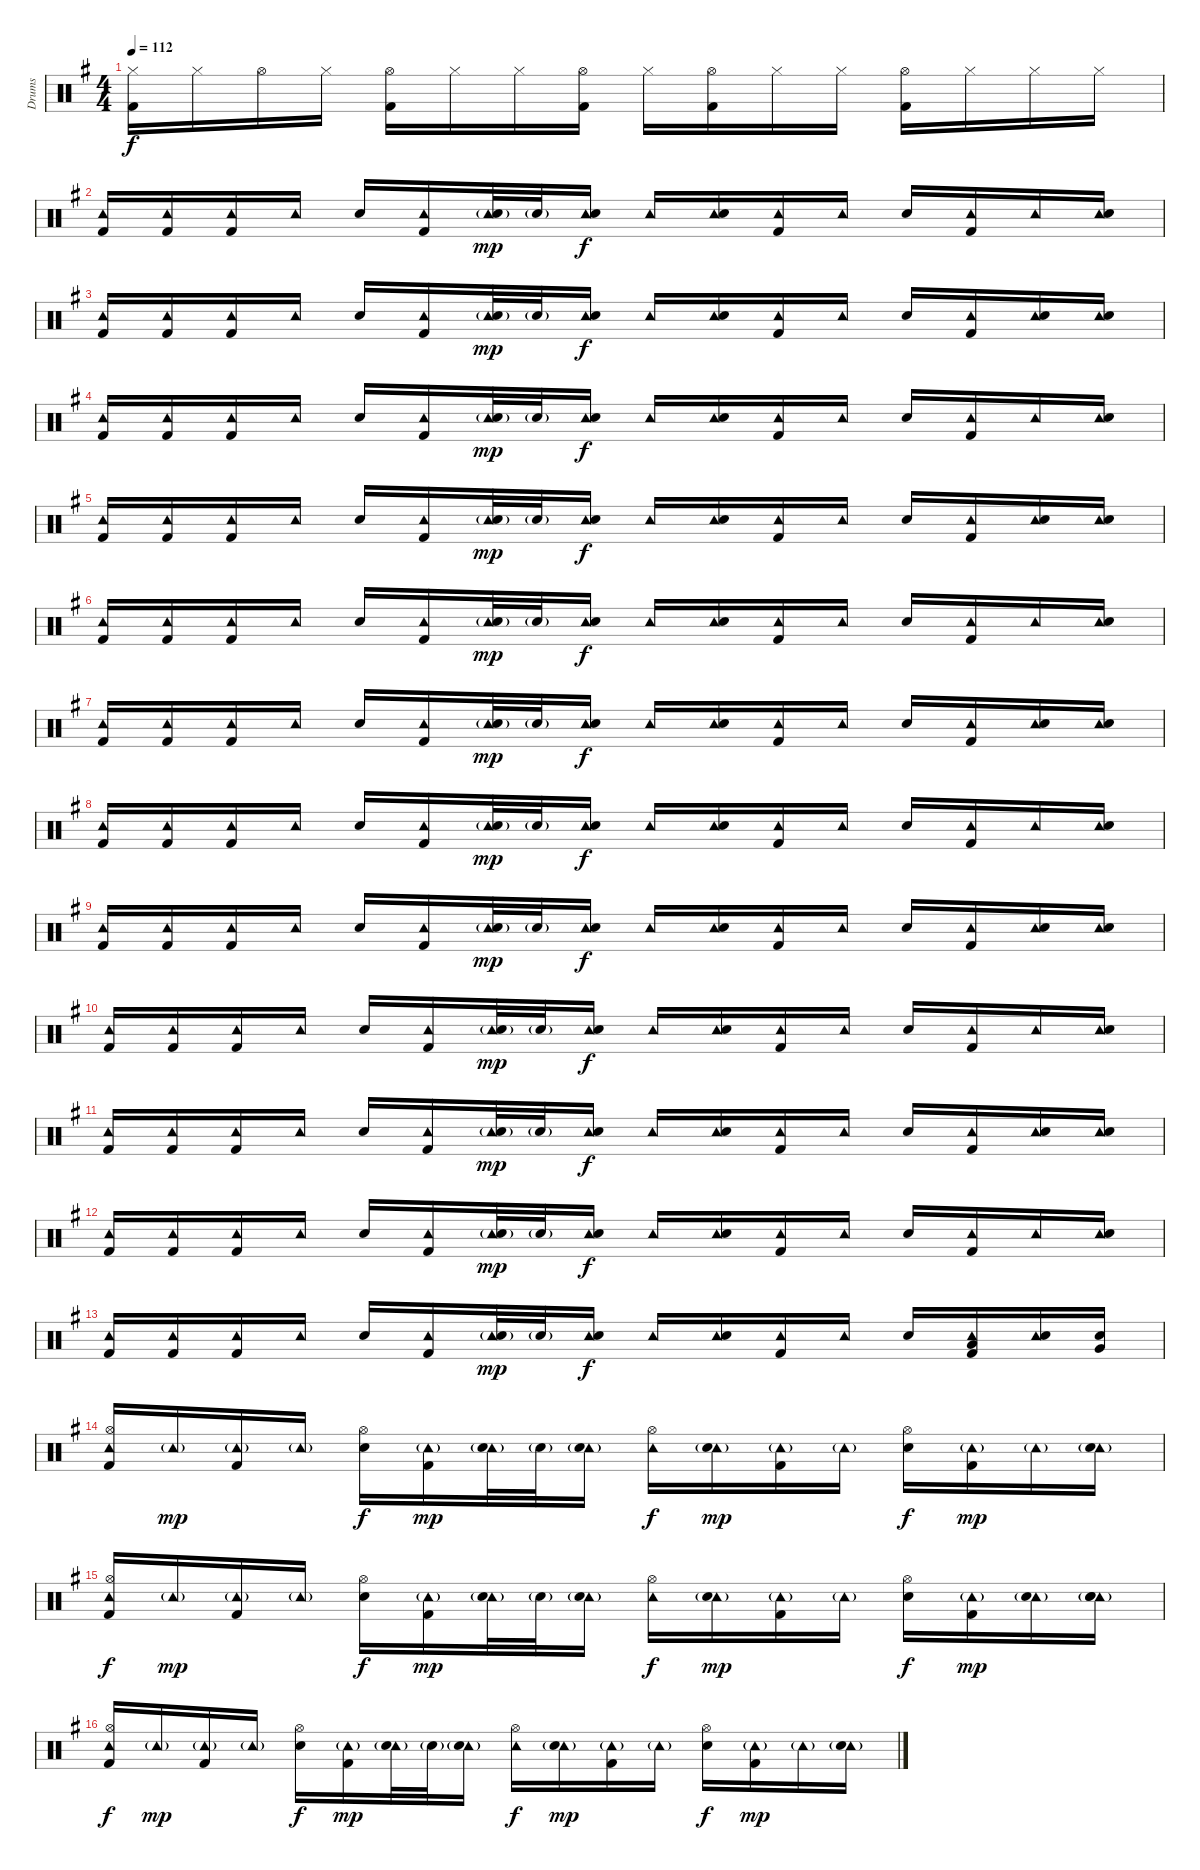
\track ("Drums" "Drums") {instrument percussion}
\staff {score}
\articulation defaults
\ts (4 4)
\tempo 112
\clef neutral
\ks g
("Hi-Hat (closed)" "Kick (hit) 2").16{dy f} "Hi-Hat (closed)".16 "Hi-Hat (open)".16 "Hi-Hat (closed)".16 ("Hi-Hat (open)" "Kick (hit) 2").16 "Hi-Hat (closed)".16 "Hi-Hat (closed)".16 ("Hi-Hat (open)" "Kick (hit) 2").16 "Hi-Hat (closed)".16 ("Hi-Hat (open)" "Kick (hit) 2").16 "Hi-Hat (closed)".16 "Hi-Hat (closed)".16 ("Hi-Hat (open)" "Kick (hit) 2").16 "Hi-Hat (closed)".16 "Hi-Hat (closed)".16 "Hi-Hat (closed)".16 |
("Tambourine (hit)" "Kick (hit) 2").16 ("Tambourine (hit)" "Kick (hit) 2").16 ("Tambourine (hit)" "Kick (hit) 2").16 "Tambourine (hit)".16 "Snare (hit) 2".16 ("Tambourine (hit)" "Kick (hit) 2").16 ("Tambourine (hit)" "Electric Snare (hit)"{g}).32{dy mp} "Electric Snare (hit)"{g}.32 ("Tambourine (hit)" "Electric Snare (hit)").16{dy f} "Tambourine (hit)".16 ("Tambourine (hit)" "Electric Snare (hit)").16 ("Tambourine (hit)" "Kick (hit) 2").16 "Tambourine (hit)".16 "Snare (hit) 2".16 ("Tambourine (hit)" "Kick (hit) 2").16 "Tambourine (hit)".16 ("Tambourine (hit)" "Electric Snare (hit)").16 |
("Tambourine (hit)" "Kick (hit) 2").16 ("Tambourine (hit)" "Kick (hit) 2").16 ("Tambourine (hit)" "Kick (hit) 2").16 "Tambourine (hit)".16 "Snare (hit) 2".16 ("Tambourine (hit)" "Kick (hit) 2").16 ("Tambourine (hit)" "Electric Snare (hit)"{g}).32{dy mp} "Electric Snare (hit)"{g}.32 ("Tambourine (hit)" "Electric Snare (hit)").16{dy f} "Tambourine (hit)".16 ("Tambourine (hit)" "Electric Snare (hit)").16 ("Tambourine (hit)" "Kick (hit) 2").16 "Tambourine (hit)".16 "Snare (hit) 2".16 ("Tambourine (hit)" "Kick (hit) 2").16 ("Tambourine (hit)" "Electric Snare (hit)").16 ("Tambourine (hit)" "Hand Clap (hit)").16 |
("Tambourine (hit)" "Kick (hit) 2").16 ("Tambourine (hit)" "Kick (hit) 2").16 ("Tambourine (hit)" "Kick (hit) 2").16 "Tambourine (hit)".16 "Snare (hit) 2".16 ("Tambourine (hit)" "Kick (hit) 2").16 ("Tambourine (hit)" "Electric Snare (hit)"{g}).32{dy mp} "Electric Snare (hit)"{g}.32 ("Tambourine (hit)" "Electric Snare (hit)").16{dy f} "Tambourine (hit)".16 ("Tambourine (hit)" "Electric Snare (hit)").16 ("Tambourine (hit)" "Kick (hit) 2").16 "Tambourine (hit)".16 "Snare (hit) 2".16 ("Tambourine (hit)" "Kick (hit) 2").16 "Tambourine (hit)".16 ("Tambourine (hit)" "Electric Snare (hit)").16 |
("Tambourine (hit)" "Kick (hit) 2").16 ("Tambourine (hit)" "Kick (hit) 2").16 ("Tambourine (hit)" "Kick (hit) 2").16 "Tambourine (hit)".16 "Snare (hit) 2".16 ("Tambourine (hit)" "Kick (hit) 2").16 ("Tambourine (hit)" "Electric Snare (hit)"{g}).32{dy mp} "Electric Snare (hit)"{g}.32 ("Tambourine (hit)" "Electric Snare (hit)").16{dy f} "Tambourine (hit)".16 ("Tambourine (hit)" "Electric Snare (hit)").16 ("Tambourine (hit)" "Kick (hit) 2").16 "Tambourine (hit)".16 "Snare (hit) 2".16 ("Tambourine (hit)" "Kick (hit) 2").16 ("Tambourine (hit)" "Electric Snare (hit)").16 ("Tambourine (hit)" "Hand Clap (hit)").16 |
("Tambourine (hit)" "Kick (hit) 2").16 ("Tambourine (hit)" "Kick (hit) 2").16 ("Tambourine (hit)" "Kick (hit) 2").16 "Tambourine (hit)".16 "Snare (hit) 2".16 ("Tambourine (hit)" "Kick (hit) 2").16 ("Tambourine (hit)" "Electric Snare (hit)"{g}).32{dy mp} "Electric Snare (hit)"{g}.32 ("Tambourine (hit)" "Electric Snare (hit)").16{dy f} "Tambourine (hit)".16 ("Tambourine (hit)" "Electric Snare (hit)").16 ("Tambourine (hit)" "Kick (hit) 2").16 "Tambourine (hit)".16 "Snare (hit) 2".16 ("Tambourine (hit)" "Kick (hit) 2").16 "Tambourine (hit)".16 ("Tambourine (hit)" "Electric Snare (hit)").16 |
("Tambourine (hit)" "Kick (hit) 2").16 ("Tambourine (hit)" "Kick (hit) 2").16 ("Tambourine (hit)" "Kick (hit) 2").16 "Tambourine (hit)".16 "Snare (hit) 2".16 ("Tambourine (hit)" "Kick (hit) 2").16 ("Tambourine (hit)" "Electric Snare (hit)"{g}).32{dy mp} "Electric Snare (hit)"{g}.32 ("Tambourine (hit)" "Electric Snare (hit)").16{dy f} "Tambourine (hit)".16 ("Tambourine (hit)" "Electric Snare (hit)").16 ("Tambourine (hit)" "Kick (hit) 2").16 "Tambourine (hit)".16 "Snare (hit) 2".16 ("Tambourine (hit)" "Kick (hit) 2").16 ("Tambourine (hit)" "Electric Snare (hit)").16 ("Tambourine (hit)" "Hand Clap (hit)").16 |
("Tambourine (hit)" "Kick (hit) 2").16 ("Tambourine (hit)" "Kick (hit) 2").16 ("Tambourine (hit)" "Kick (hit) 2").16 "Tambourine (hit)".16 "Snare (hit) 2".16 ("Tambourine (hit)" "Kick (hit) 2").16 ("Tambourine (hit)" "Electric Snare (hit)"{g}).32{dy mp} "Electric Snare (hit)"{g}.32 ("Tambourine (hit)" "Electric Snare (hit)").16{dy f} "Tambourine (hit)".16 ("Tambourine (hit)" "Electric Snare (hit)").16 ("Tambourine (hit)" "Kick (hit) 2").16 "Tambourine (hit)".16 "Snare (hit) 2".16 ("Tambourine (hit)" "Kick (hit) 2").16 "Tambourine (hit)".16 ("Tambourine (hit)" "Electric Snare (hit)").16 |
("Tambourine (hit)" "Kick (hit) 2").16 ("Tambourine (hit)" "Kick (hit) 2").16 ("Tambourine (hit)" "Kick (hit) 2").16 "Tambourine (hit)".16 "Snare (hit) 2".16 ("Tambourine (hit)" "Kick (hit) 2").16 ("Tambourine (hit)" "Electric Snare (hit)"{g}).32{dy mp} "Electric Snare (hit)"{g}.32 ("Tambourine (hit)" "Electric Snare (hit)").16{dy f} "Tambourine (hit)".16 ("Tambourine (hit)" "Electric Snare (hit)").16 ("Tambourine (hit)" "Kick (hit) 2").16 "Tambourine (hit)".16 "Snare (hit) 2".16 ("Tambourine (hit)" "Kick (hit) 2").16 ("Tambourine (hit)" "Electric Snare (hit)").16 ("Tambourine (hit)" "Hand Clap (hit)").16 |
("Tambourine (hit)" "Kick (hit) 2").16 ("Tambourine (hit)" "Kick (hit) 2").16 ("Tambourine (hit)" "Kick (hit) 2").16 "Tambourine (hit)".16 "Snare (hit) 2".16 ("Tambourine (hit)" "Kick (hit) 2").16 ("Tambourine (hit)" "Electric Snare (hit)"{g}).32{dy mp} "Electric Snare (hit)"{g}.32 ("Tambourine (hit)" "Electric Snare (hit)").16{dy f} "Tambourine (hit)".16 ("Tambourine (hit)" "Electric Snare (hit)").16 ("Tambourine (hit)" "Kick (hit) 2").16 "Tambourine (hit)".16 "Snare (hit) 2".16 ("Tambourine (hit)" "Kick (hit) 2").16 "Tambourine (hit)".16 ("Tambourine (hit)" "Electric Snare (hit)").16 |
("Tambourine (hit)" "Kick (hit) 2").16 ("Tambourine (hit)" "Kick (hit) 2").16 ("Tambourine (hit)" "Kick (hit) 2").16 "Tambourine (hit)".16 "Snare (hit) 2".16 ("Tambourine (hit)" "Kick (hit) 2").16 ("Tambourine (hit)" "Electric Snare (hit)"{g}).32{dy mp} "Electric Snare (hit)"{g}.32 ("Tambourine (hit)" "Electric Snare (hit)").16{dy f} "Tambourine (hit)".16 ("Tambourine (hit)" "Electric Snare (hit)").16 ("Tambourine (hit)" "Kick (hit) 2").16 "Tambourine (hit)".16 "Snare (hit) 2".16 ("Tambourine (hit)" "Kick (hit) 2").16 ("Tambourine (hit)" "Electric Snare (hit)").16 ("Tambourine (hit)" "Hand Clap (hit)").16 |
("Tambourine (hit)" "Kick (hit) 2").16 ("Tambourine (hit)" "Kick (hit) 2").16 ("Tambourine (hit)" "Kick (hit) 2").16 "Tambourine (hit)".16 "Snare (hit) 2".16 ("Tambourine (hit)" "Kick (hit) 2").16 ("Tambourine (hit)" "Electric Snare (hit)"{g}).32{dy mp} "Electric Snare (hit)"{g}.32 ("Tambourine (hit)" "Electric Snare (hit)").16{dy f} "Tambourine (hit)".16 ("Tambourine (hit)" "Electric Snare (hit)").16 ("Tambourine (hit)" "Kick (hit) 2").16 "Tambourine (hit)".16 "Snare (hit) 2".16 ("Tambourine (hit)" "Kick (hit) 2").16 "Tambourine (hit)".16 ("Tambourine (hit)" "Electric Snare (hit)").16 |
("Tambourine (hit)" "Kick (hit) 2").16 ("Tambourine (hit)" "Kick (hit) 2").16 ("Tambourine (hit)" "Kick (hit) 2").16 "Tambourine (hit)".16 "Snare (hit) 2".16 ("Tambourine (hit)" "Kick (hit) 2").16 ("Tambourine (hit)" "Electric Snare (hit)"{g}).32{dy mp} "Electric Snare (hit)"{g}.32 ("Tambourine (hit)" "Electric Snare (hit)").16{dy f} "Tambourine (hit)".16 ("Tambourine (hit)" "Electric Snare (hit)").16 ("Tambourine (hit)" "Kick (hit) 2").16 "Tambourine (hit)".16 "Snare (hit) 2".16 ("Tambourine (hit)" "Low Tom (hit)" "Kick (hit) 2").16 ("Tambourine (hit)" "Electric Snare (hit)").16 ("Very Low Tom (hit)" "Hand Clap (hit)").16 |
("Tambourine (hit)" "Hi-Hat (open)" "Kick (hit) 2").16 "Tambourine (hit)"{g}.16{dy mp} ("Tambourine (hit)"{g} "Kick (hit) 2").16 "Tambourine (hit)"{g}.16 ("Hi-Hat (open)" "Snare (hit) 2").16{dy f} ("Tambourine (hit)"{g} "Kick (hit) 2").16{dy mp} ("Tambourine (hit)"{g} "Electric Snare (hit)"{g}).32 "Electric Snare (hit)"{g}.32 ("Tambourine (hit)"{g} "Electric Snare (hit)").16 ("Tambourine (hit)" "Hi-Hat (open)").16{dy f} ("Tambourine (hit)"{g} "Electric Snare (hit)").16{dy mp} ("Tambourine (hit)"{g} "Kick (hit) 2").16 "Tambourine (hit)"{g}.16 ("Hi-Hat (open)" "Snare (hit) 2").16{dy f} ("Tambourine (hit)"{g} "Kick (hit) 2").16{dy mp} "Tambourine (hit)"{g}.16 ("Tambourine (hit)"{g} "Electric Snare (hit)").16 |
("Tambourine (hit)" "Hi-Hat (open)" "Kick (hit) 2").16{dy f} "Tambourine (hit)"{g}.16{dy mp} ("Tambourine (hit)"{g} "Kick (hit) 2").16 "Tambourine (hit)"{g}.16 ("Hi-Hat (open)" "Snare (hit) 2").16{dy f} ("Tambourine (hit)"{g} "Kick (hit) 2").16{dy mp} ("Tambourine (hit)"{g} "Electric Snare (hit)"{g}).32 "Electric Snare (hit)"{g}.32 ("Tambourine (hit)"{g} "Electric Snare (hit)").16 ("Tambourine (hit)" "Hi-Hat (open)").16{dy f} ("Tambourine (hit)"{g} "Electric Snare (hit)").16{dy mp} ("Tambourine (hit)"{g} "Kick (hit) 2").16 "Tambourine (hit)"{g}.16 ("Hi-Hat (open)" "Snare (hit) 2").16{dy f} ("Tambourine (hit)"{g} "Kick (hit) 2").16{dy mp} ("Tambourine (hit)"{g} "Electric Snare (hit)").16 ("Tambourine (hit)"{g} "Hand Clap (hit)" "Electric Snare (hit)").16 |
("Tambourine (hit)" "Hi-Hat (open)" "Kick (hit) 2").16{dy f} "Tambourine (hit)"{g}.16{dy mp} ("Tambourine (hit)"{g} "Kick (hit) 2").16 "Tambourine (hit)"{g}.16 ("Hi-Hat (open)" "Snare (hit) 2").16{dy f} ("Tambourine (hit)"{g} "Kick (hit) 2").16{dy mp} ("Tambourine (hit)"{g} "Electric Snare (hit)"{g}).32 "Electric Snare (hit)"{g}.32 ("Tambourine (hit)"{g} "Electric Snare (hit)").16 ("Tambourine (hit)" "Hi-Hat (open)").16{dy f} ("Tambourine (hit)"{g} "Electric Snare (hit)").16{dy mp} ("Tambourine (hit)"{g} "Kick (hit) 2").16 "Tambourine (hit)"{g}.16 ("Hi-Hat (open)" "Snare (hit) 2").16{dy f} ("Tambourine (hit)"{g} "Kick (hit) 2").16{dy mp} "Tambourine (hit)"{g}.16 ("Tambourine (hit)"{g} "Electric Snare (hit)").16
